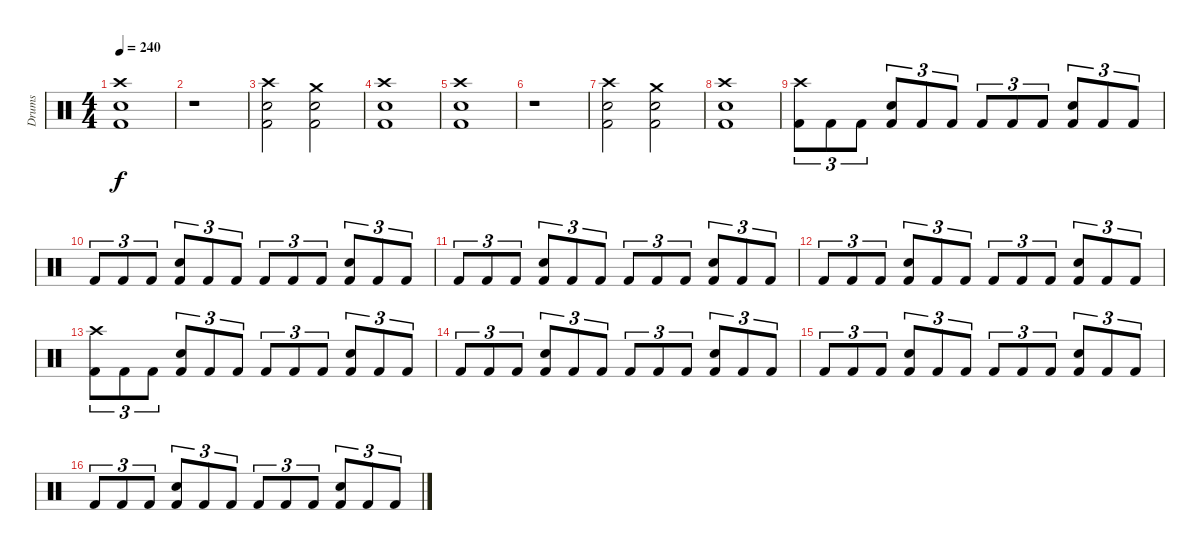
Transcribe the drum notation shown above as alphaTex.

\track ("Drums" "Drums") {instrument percussion}
\staff {score}
\articulation defaults
\ts (4 4)
\tempo 240
\clef neutral
\ks c
("Kick (hit) 2" "Electric Snare (hit)" "Crash high (hit)").1{dy f} |
r.1 |
("Kick (hit) 2" "Electric Snare (hit)" "Crash high (hit)").2 ("Kick (hit) 2" "Electric Snare (hit)" "Crash medium (hit)").2 |
("Kick (hit) 2" "Electric Snare (hit)" "Crash high (hit)").1 |
("Kick (hit) 2" "Electric Snare (hit)" "Crash high (hit)").1 |
r.1 |
("Kick (hit) 2" "Electric Snare (hit)" "Crash high (hit)").2 ("Kick (hit) 2" "Electric Snare (hit)" "Crash medium (hit)").2 |
("Kick (hit) 2" "Electric Snare (hit)" "Crash high (hit)").1 |
("Kick (hit) 2" "Crash high (hit)").8{tu (3 2)} "Kick (hit) 2".8{tu (3 2)} "Kick (hit) 2".8{tu (3 2)} ("Kick (hit) 2" "Electric Snare (hit)").8{tu (3 2)} "Kick (hit) 2".8{tu (3 2)} "Kick (hit) 2".8{tu (3 2)} "Kick (hit) 2".8{tu (3 2)} "Kick (hit) 2".8{tu (3 2)} "Kick (hit) 2".8{tu (3 2)} ("Kick (hit) 2" "Electric Snare (hit)").8{tu (3 2)} "Kick (hit) 2".8{tu (3 2)} "Kick (hit) 2".8{tu (3 2)} |
"Kick (hit) 2".8{tu (3 2)} "Kick (hit) 2".8{tu (3 2)} "Kick (hit) 2".8{tu (3 2)} ("Kick (hit) 2" "Electric Snare (hit)").8{tu (3 2)} "Kick (hit) 2".8{tu (3 2)} "Kick (hit) 2".8{tu (3 2)} "Kick (hit) 2".8{tu (3 2)} "Kick (hit) 2".8{tu (3 2)} "Kick (hit) 2".8{tu (3 2)} ("Kick (hit) 2" "Electric Snare (hit)").8{tu (3 2)} "Kick (hit) 2".8{tu (3 2)} "Kick (hit) 2".8{tu (3 2)} |
"Kick (hit) 2".8{tu (3 2)} "Kick (hit) 2".8{tu (3 2)} "Kick (hit) 2".8{tu (3 2)} ("Kick (hit) 2" "Electric Snare (hit)").8{tu (3 2)} "Kick (hit) 2".8{tu (3 2)} "Kick (hit) 2".8{tu (3 2)} "Kick (hit) 2".8{tu (3 2)} "Kick (hit) 2".8{tu (3 2)} "Kick (hit) 2".8{tu (3 2)} ("Kick (hit) 2" "Electric Snare (hit)").8{tu (3 2)} "Kick (hit) 2".8{tu (3 2)} "Kick (hit) 2".8{tu (3 2)} |
"Kick (hit) 2".8{tu (3 2)} "Kick (hit) 2".8{tu (3 2)} "Kick (hit) 2".8{tu (3 2)} ("Kick (hit) 2" "Electric Snare (hit)").8{tu (3 2)} "Kick (hit) 2".8{tu (3 2)} "Kick (hit) 2".8{tu (3 2)} "Kick (hit) 2".8{tu (3 2)} "Kick (hit) 2".8{tu (3 2)} "Kick (hit) 2".8{tu (3 2)} ("Kick (hit) 2" "Electric Snare (hit)").8{tu (3 2)} "Kick (hit) 2".8{tu (3 2)} "Kick (hit) 2".8{tu (3 2)} |
("Kick (hit) 2" "Crash high (hit)").8{tu (3 2)} "Kick (hit) 2".8{tu (3 2)} "Kick (hit) 2".8{tu (3 2)} ("Kick (hit) 2" "Electric Snare (hit)").8{tu (3 2)} "Kick (hit) 2".8{tu (3 2)} "Kick (hit) 2".8{tu (3 2)} "Kick (hit) 2".8{tu (3 2)} "Kick (hit) 2".8{tu (3 2)} "Kick (hit) 2".8{tu (3 2)} ("Kick (hit) 2" "Electric Snare (hit)").8{tu (3 2)} "Kick (hit) 2".8{tu (3 2)} "Kick (hit) 2".8{tu (3 2)} |
"Kick (hit) 2".8{tu (3 2)} "Kick (hit) 2".8{tu (3 2)} "Kick (hit) 2".8{tu (3 2)} ("Kick (hit) 2" "Electric Snare (hit)").8{tu (3 2)} "Kick (hit) 2".8{tu (3 2)} "Kick (hit) 2".8{tu (3 2)} "Kick (hit) 2".8{tu (3 2)} "Kick (hit) 2".8{tu (3 2)} "Kick (hit) 2".8{tu (3 2)} ("Kick (hit) 2" "Electric Snare (hit)").8{tu (3 2)} "Kick (hit) 2".8{tu (3 2)} "Kick (hit) 2".8{tu (3 2)} |
"Kick (hit) 2".8{tu (3 2)} "Kick (hit) 2".8{tu (3 2)} "Kick (hit) 2".8{tu (3 2)} ("Kick (hit) 2" "Electric Snare (hit)").8{tu (3 2)} "Kick (hit) 2".8{tu (3 2)} "Kick (hit) 2".8{tu (3 2)} "Kick (hit) 2".8{tu (3 2)} "Kick (hit) 2".8{tu (3 2)} "Kick (hit) 2".8{tu (3 2)} ("Kick (hit) 2" "Electric Snare (hit)").8{tu (3 2)} "Kick (hit) 2".8{tu (3 2)} "Kick (hit) 2".8{tu (3 2)} |
"Kick (hit) 2".8{tu (3 2)} "Kick (hit) 2".8{tu (3 2)} "Kick (hit) 2".8{tu (3 2)} ("Kick (hit) 2" "Electric Snare (hit)").8{tu (3 2)} "Kick (hit) 2".8{tu (3 2)} "Kick (hit) 2".8{tu (3 2)} "Kick (hit) 2".8{tu (3 2)} "Kick (hit) 2".8{tu (3 2)} "Kick (hit) 2".8{tu (3 2)} ("Kick (hit) 2" "Electric Snare (hit)").8{tu (3 2)} "Kick (hit) 2".8{tu (3 2)} "Kick (hit) 2".8{tu (3 2)}
